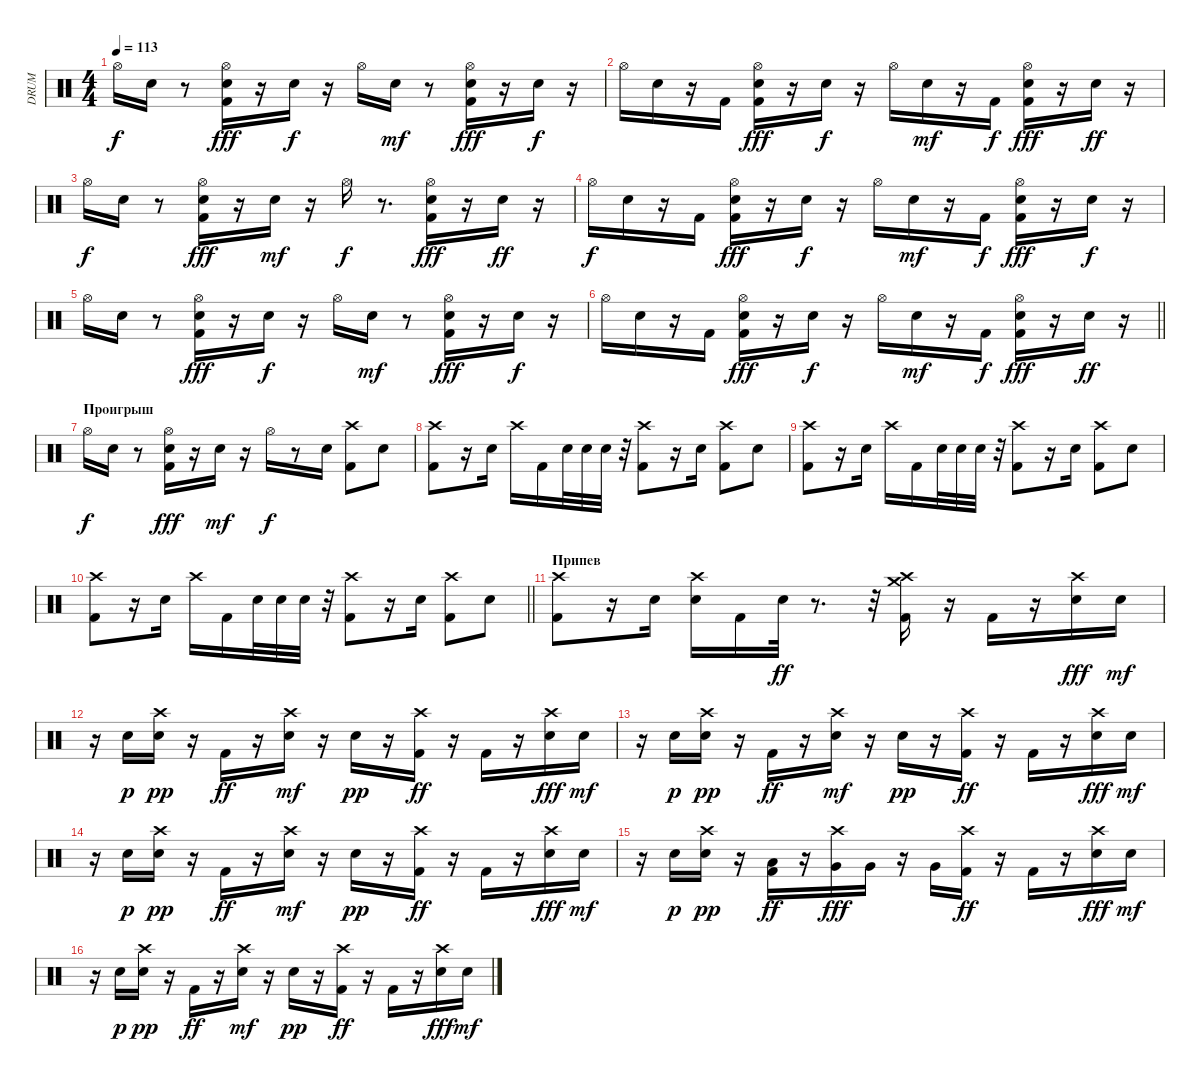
\track ("DRUM" "DRUM") {instrument percussion}
\staff {score}
\articulation defaults
\ts (4 4)
\tempo 113
\clef neutral
\ks c "Hi-Hat (open)".16{dy f} "Electric Snare (hit)".16
r.8 ("Electric Snare (hit)" "Kick (hit) 2" "Hi-Hat (open)").16{dy fff} r.16 "Electric Snare (hit)".16{dy f} r.16 "Hi-Hat (open)".16 "Electric Snare (hit)".16{dy mf} r.8 ("Electric Snare (hit)" "Hi-Hat (open)" "Kick (hit) 2").16{dy fff} r.16 "Electric Snare (hit)".16{dy f} r.16 |
"Hi-Hat (open)".16 "Electric Snare (hit)".16 r.16 "Kick (hit) 2".16 ("Hi-Hat (open)" "Kick (hit) 2" "Electric Snare (hit)").16{dy fff} r.16 "Electric Snare (hit)".16{dy f} r.16 "Hi-Hat (open)".16 "Electric Snare (hit)".16{dy mf} r.16 "Kick (hit) 2".16{dy f} ("Hi-Hat (open)" "Kick (hit) 2" "Electric Snare (hit)").16{dy fff} r.16 "Electric Snare (hit)".16{dy ff} r.16 |
"Hi-Hat (open)".16{dy f} "Electric Snare (hit)".16 r.8 ("Kick (hit) 2" "Hi-Hat (open)" "Electric Snare (hit)").16{dy fff} r.16 "Electric Snare (hit)".16{dy mf} r.16 "Hi-Hat (open)".16{dy f} r.8{d} ("Electric Snare (hit)" "Hi-Hat (open)" "Kick (hit) 2").16{dy fff} r.16 "Electric Snare (hit)".16{dy ff} r.16 |
"Hi-Hat (open)".16{dy f} "Electric Snare (hit)".16 r.16 "Kick (hit) 2".16 ("Kick (hit) 2" "Electric Snare (hit)" "Hi-Hat (open)").16{dy fff} r.16 "Electric Snare (hit)".16{dy f} r.16 "Hi-Hat (open)".16 "Electric Snare (hit)".16{dy mf} r.16 "Kick (hit) 2".16{dy f} ("Kick (hit) 2" "Hi-Hat (open)" "Electric Snare (hit)").16{dy fff} r.16 "Electric Snare (hit)".16{dy f} r.16 |
"Hi-Hat (open)".16 "Electric Snare (hit)".16 r.8 ("Hi-Hat (open)" "Kick (hit) 2" "Electric Snare (hit)").16{dy fff} r.16 "Electric Snare (hit)".16{dy f} r.16 "Hi-Hat (open)".16 "Electric Snare (hit)".16{dy mf} r.8 ("Electric Snare (hit)" "Hi-Hat (open)" "Kick (hit) 2").16{dy fff} r.16 "Electric Snare (hit)".16{dy f} r.16 |
\barLineRight lightlight "Hi-Hat (open)".16 "Electric Snare (hit)".16
r.16 "Kick (hit) 2".16 ("Hi-Hat (open)" "Kick (hit) 2" "Electric Snare (hit)").16{dy fff} r.16 "Electric Snare (hit)".16{dy f} r.16 "Hi-Hat (open)".16 "Electric Snare (hit)".16{dy mf} r.16 "Kick (hit) 2".16{dy f} ("Electric Snare (hit)" "Kick (hit) 2" "Hi-Hat (open)").16{dy fff} r.16 "Electric Snare (hit)".16{dy ff} r.16 |
\section ("" "Проигрыш")
"Hi-Hat (open)".16{dy f} "Electric Snare (hit)".16 r.8 ("Kick (hit) 2" "Hi-Hat (open)" "Electric Snare (hit)").16{dy fff} r.16 "Electric Snare (hit)".16{dy mf} r.16 "Hi-Hat (open)".16{dy f} r.8 "Electric Snare (hit)".16 ("Kick (hit) 2" "Crash high (hit)").8 "Electric Snare (hit)".8 |
("Kick (hit) 2" "Crash high (hit)").8 r.16 "Electric Snare (hit)".16 "Crash high (hit)".16 "Kick (hit) 2".16 "Electric Snare (hit)".32 "Electric Snare (hit)".32 "Electric Snare (hit)".32 r.32 ("Kick (hit) 2" "Crash high (hit)").8 r.16 "Electric Snare (hit)".16 ("Kick (hit) 2" "Crash high (hit)").8 "Electric Snare (hit)".8 |
("Kick (hit) 2" "Crash high (hit)").8 r.16 "Electric Snare (hit)".16 "Crash high (hit)".16 "Kick (hit) 2".16 "Electric Snare (hit)".32 "Electric Snare (hit)".32 "Electric Snare (hit)".32 r.32 ("Kick (hit) 2" "Crash high (hit)").8 r.16 "Electric Snare (hit)".16 ("Kick (hit) 2" "Crash high (hit)").8 "Electric Snare (hit)".8 |
\barLineRight lightlight
("Kick (hit) 2" "Crash high (hit)").8 r.16 "Electric Snare (hit)".16 "Crash high (hit)".16 "Kick (hit) 2".16 "Electric Snare (hit)".32 "Electric Snare (hit)".32 "Electric Snare (hit)".32 r.32 ("Kick (hit) 2" "Crash high (hit)").8 r.16 "Electric Snare (hit)".16 ("Kick (hit) 2" "Crash high (hit)").8 "Electric Snare (hit)".8 |
\section ("" "Припев")
("Kick (hit) 2" "Crash high (hit)").8 r.16 "Electric Snare (hit)".16 ("Electric Snare (hit)" "Crash high (hit)").16 "Kick (hit) 2".16 "Electric Snare (hit)".32{dy ff} r.8{d} r.32 ("Crash medium (hit)" "Crash high (hit)" "Kick (hit) 2").16 r.16 "Kick (hit) 2".16 r.16 ("Crash high (hit)" "Electric Snare (hit)").16{dy fff} "Electric Snare (hit)".16{dy mf} |
r.16 "Electric Snare (hit)".16{dy p} ("Electric Snare (hit)" "Crash high (hit)").16{dy pp} r.16 "Kick (hit) 2".16{dy ff} r.16 ("Electric Snare (hit)" "Crash high (hit)").16{dy mf} r.16 "Electric Snare (hit)".16{dy pp} r.16 ("Crash high (hit)" "Kick (hit) 2").16{dy ff} r.16 "Kick (hit) 2".16 r.16 ("Crash high (hit)" "Electric Snare (hit)").16{dy fff} "Electric Snare (hit)".16{dy mf} |
r.16 "Electric Snare (hit)".16{dy p} ("Electric Snare (hit)" "Crash high (hit)").16{dy pp} r.16 "Kick (hit) 2".16{dy ff} r.16 ("Electric Snare (hit)" "Crash high (hit)").16{dy mf} r.16 "Electric Snare (hit)".16{dy pp} r.16 ("Crash high (hit)" "Kick (hit) 2").16{dy ff} r.16 "Kick (hit) 2".16 r.16 ("Crash high (hit)" "Electric Snare (hit)").16{dy fff} "Electric Snare (hit)".16{dy mf} |
r.16 "Electric Snare (hit)".16{dy p} ("Electric Snare (hit)" "Crash high (hit)").16{dy pp} r.16 "Kick (hit) 2".16{dy ff} r.16 ("Electric Snare (hit)" "Crash high (hit)").16{dy mf} r.16 "Electric Snare (hit)".16{dy pp} r.16 ("Crash high (hit)" "Kick (hit) 2").16{dy ff} r.16 "Kick (hit) 2".16 r.16 ("Electric Snare (hit)" "Crash high (hit)").16{dy fff} "Electric Snare (hit)".16{dy mf} |
r.16 "Electric Snare (hit)".16{dy p} ("Crash high (hit)" "Electric Snare (hit)").16{dy pp} r.16 ("Low Floor Tom (hit)" "Kick (hit) 2").16{dy ff} r.16 ("Crash high (hit)" "Very Low Tom (hit)").16{dy fff} "Very Low Tom (hit)".16 r.16 "Very Low Tom (hit)".16 ("Crash high (hit)" "Kick (hit) 2").16{dy ff} r.16 "Kick (hit) 2".16 r.16 ("Crash high (hit)" "Electric Snare (hit)").16{dy fff} "Electric Snare (hit)".16{dy mf} |
r.16 "Electric Snare (hit)".16{dy p} ("Electric Snare (hit)" "Crash high (hit)").16{dy pp} r.16 "Kick (hit) 2".16{dy ff} r.16 ("Electric Snare (hit)" "Crash high (hit)").16{dy mf} r.16 "Electric Snare (hit)".16{dy pp} r.16 ("Crash high (hit)" "Kick (hit) 2").16{dy ff} r.16 "Kick (hit) 2".16 r.16 ("Crash high (hit)" "Electric Snare (hit)").16{dy fff} "Electric Snare (hit)".16{dy mf}
